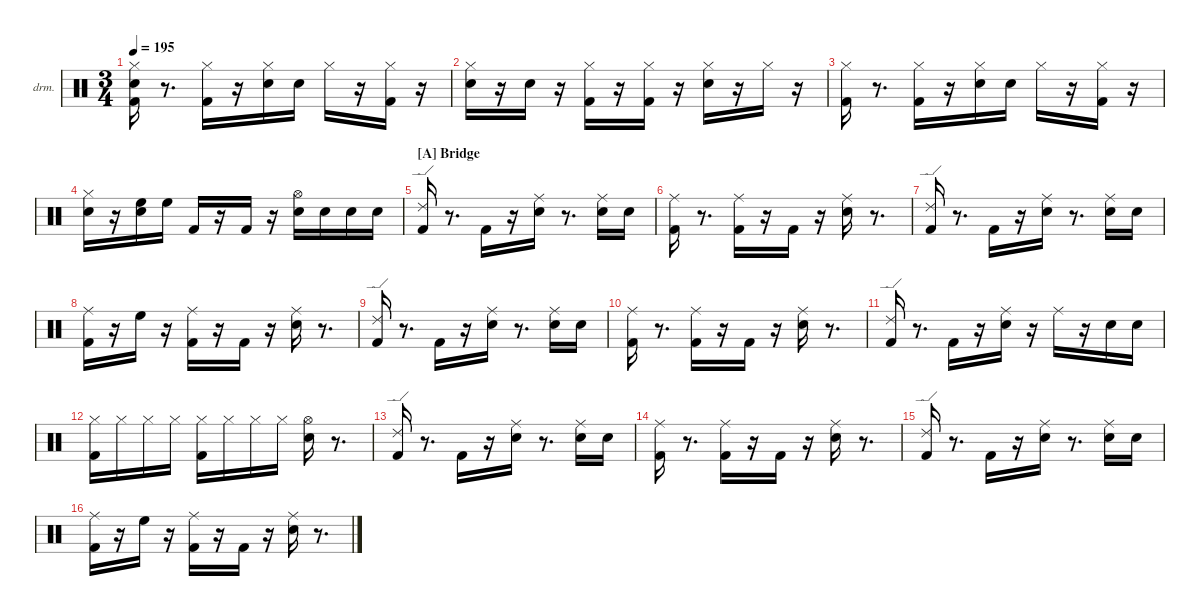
\hideDynamics
\bracketExtendMode nobrackets
\firstSystemTrackNameOrientation horizontal
\track ("Drums" "drm.") {instrument percussion}
\staff {score}
\articulation defaults
\ts (3 4)
\tempo 195
\clef neutral
\ks aminor
("Kick (hit) 2" "Snare (hit) 2" "Hi-Hat (closed)"{acc #}).16{dy fff} r.8{d} ("Kick (hit) 2" "Hi-Hat (closed)"{acc #}).16{dy mp} r.16 ("Snare (hit) 2" "Hi-Hat (closed)"{acc #}).16{dy f} "Snare (hit) 2".16{dy pp} "Hi-Hat (closed)"{acc #}.16{dy ppp} r.16 ("Kick (hit) 2" "Hi-Hat (closed)"{acc #}).16{dy f} r.16 |
("Snare (hit) 2" "Hi-Hat (closed)"{acc #}).16{dy ff} r.16 "Snare (hit) 2".16{dy ppp} r.16 ("Kick (hit) 2" "Hi-Hat (closed)"{acc #}).16 r.16 ("Kick (hit) 2" "Hi-Hat (closed)"{acc #}).16{dy ff} r.16 ("Snare (hit) 2" "Hi-Hat (closed)"{acc #}).16{dy f} r.16 "Hi-Hat (closed)"{acc #}.16{dy ppp} r.16 |
("Kick (hit) 2" "Hi-Hat (closed)"{acc #}).16{dy ff} r.8{d} ("Kick (hit) 2" "Hi-Hat (closed)"{acc #}).16{dy mf} r.16 ("Snare (hit) 2" "Hi-Hat (closed)"{acc #}).16{dy f} "Snare (hit) 2".16{dy pp} "Hi-Hat (closed)"{acc #}.16{dy ppp} r.16 ("Kick (hit) 2" "Hi-Hat (closed)"{acc #}).16{dy f} r.16 |
("Snare (hit) 2" "Hi-Hat (closed)"{acc #}).16{dy ff} r.16 ("Snare (hit) 2" "High Floor Tom (hit)").16{dy ppp} "High Floor Tom (hit)".16{dy mf} "Kick (hit) 2".16 r.16 "Kick (hit) 2".16{dy ff} r.16 ("Snare (hit) 2" "Hi-Hat (open)"{acc #}).16 "Snare (hit) 2".16{dy pp} "Snare (hit) 2".16{dy ppp} "Snare (hit) 2".16 |
\section ("A" "Bridge")
("Kick (hit) 2" "Ride (edge) 2").16{dy f} r.8{d} "Kick (hit) 2".16 r.16 ("Snare (hit) 2" "Ride (middle)"{acc #}).16 r.8{d} ("Snare (hit) 2" "Ride (middle)"{acc #}).16{dy mf} "Snare (hit) 2".16{dy mp} |
("Kick (hit) 2" "Ride (middle)"{acc #}).16{dy fff} r.8{d} ("Kick (hit) 2" "Ride (middle)"{acc #}).16{dy mp} r.16 "Kick (hit) 2".16{dy f} r.16 ("Snare (hit) 2" "Ride (middle)"{acc #}).16{dy fff} r.8{d} |
("Kick (hit) 2" "Ride (edge) 2").16{dy f} r.8{d} "Kick (hit) 2".16{dy ff} r.16 ("Snare (hit) 2" "Ride (middle)"{acc #}).16{dy f} r.8{d} ("Snare (hit) 2" "Ride (middle)"{acc #}).16 "Snare (hit) 2".16{dy mp} |
("Kick (hit) 2" "Ride (middle)"{acc #}).16{dy ff} r.16 "High Floor Tom (hit)".16{dy fff} r.16 ("Kick (hit) 2" "Ride (middle)"{acc #}).16{dy ppp} r.16 "Kick (hit) 2".16{dy f} r.16 ("Snare (hit) 2" "Ride (middle)"{acc #}).16{dy ff} r.8{d} |
("Kick (hit) 2" "Ride (edge) 2").16 r.8{d} "Kick (hit) 2".16{dy f} r.16 ("Snare (hit) 2" "Ride (middle)"{acc #}).16 r.8{d} ("Snare (hit) 2" "Ride (middle)"{acc #}).16{dy mf} "Snare (hit) 2".16{dy mp} |
("Kick (hit) 2" "Ride (middle)"{acc #}).16{dy fff} r.8{d} ("Kick (hit) 2" "Ride (middle)"{acc #}).16{dy f} r.16 "Kick (hit) 2".16 r.16 ("Snare (hit) 2" "Ride (middle)"{acc #}).16{dy fff} r.8{d} |
("Kick (hit) 2" "Ride (edge) 2").16{dy ff} r.8{d} "Kick (hit) 2".16 r.16 ("Snare (hit) 2" "Ride (middle)"{acc #}).16{dy f} r.16 "Ride (middle)"{acc #}.16{dy fff} r.16 "Snare (hit) 2".16{dy f} "Snare (hit) 2".16{dy mp} |
("Kick (hit) 2" "Hi-Hat (closed)"{acc #}).16{dy ff} "Hi-Hat (closed)"{acc #}.16{dy ppp} "Hi-Hat (closed)"{acc #}.16{dy mf} "Hi-Hat (closed)"{acc #}.16{dy p} ("Kick (hit) 2" "Hi-Hat (closed)"{acc #}).16{dy ppp} "Hi-Hat (closed)"{acc #}.16 "Hi-Hat (closed)"{acc #}.16{dy mf} "Hi-Hat (closed)"{acc #}.16{dy mp} ("Snare (hit) 2" "Hi-Hat (open)"{acc #}).16{dy fff} r.8{d} |
("Kick (hit) 2" "Ride (edge) 2").16{dy ff} r.8{d} "Kick (hit) 2".16{dy f} r.16 ("Snare (hit) 2" "Ride (middle)"{acc #}).16 r.8{d} ("Snare (hit) 2" "Ride (middle)"{acc #}).16{dy mf} "Snare (hit) 2".16{dy mp} |
("Kick (hit) 2" "Ride (middle)"{acc #}).16{dy fff} r.8{d} ("Kick (hit) 2" "Ride (middle)"{acc #}).16{dy mp} r.16 "Kick (hit) 2".16{dy f} r.16 ("Snare (hit) 2" "Ride (middle)"{acc #}).16{dy fff} r.8{d} |
("Kick (hit) 2" "Ride (edge) 2").16{dy ff} r.8{d} "Kick (hit) 2".16 r.16 ("Snare (hit) 2" "Ride (middle)"{acc #}).16{dy f} r.8{d} ("Snare (hit) 2" "Ride (middle)"{acc #}).16 "Snare (hit) 2".16{dy mp} |
("Kick (hit) 2" "Ride (middle)"{acc #}).16{dy ff} r.16 "High Floor Tom (hit)".16{dy fff} r.16 ("Kick (hit) 2" "Ride (middle)"{acc #}).16{dy f} r.16 "Kick (hit) 2".16 r.16 ("Snare (hit) 2" "Ride (middle)"{acc #}).16{dy mf} r.8{d}
